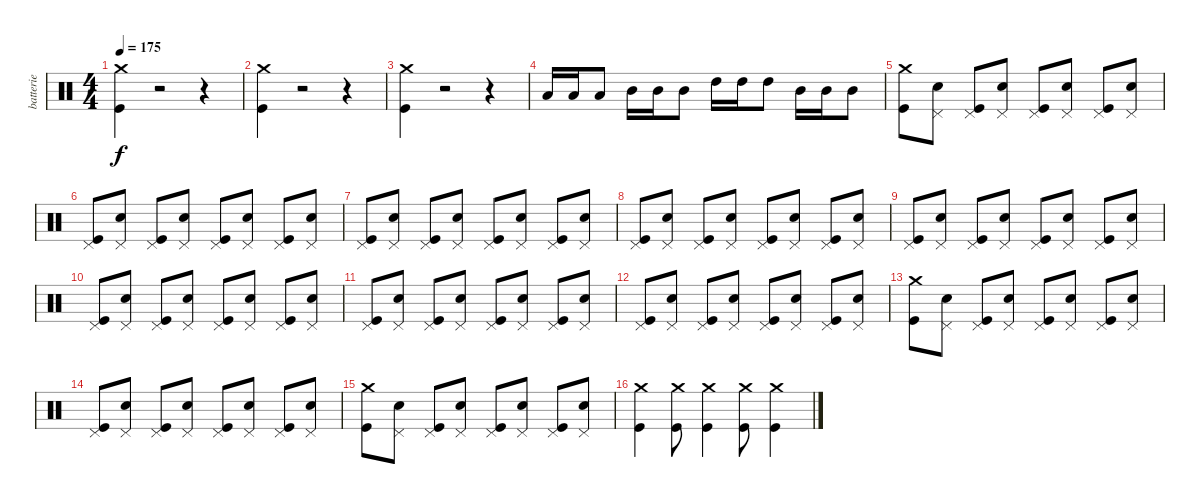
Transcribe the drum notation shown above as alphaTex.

\track ("batterie" "batterie") {instrument percussion}
\staff {score}
\articulation defaults
\ts (4 4)
\tempo 175
\clef neutral
\ks c
("Crash medium (hit)" "Kick (hit)").4{dy f} r.2 r.4 |
("Crash medium (hit)" "Kick (hit)").4 r.2 r.4 |
("Crash medium (hit)" "Kick (hit)").4 r.2 r.4 |
"Low Tom (hit)".16 "Low Tom (hit)".16 "Low Tom (hit)".8 "Mid Tom (hit)".16 "Mid Tom (hit)".16 "Mid Tom (hit)".8 "High Tom (hit)".16 "High Tom (hit)".16 "High Tom (hit)".8 "Mid Tom (hit)".16 "Mid Tom (hit)".16 "Mid Tom (hit)".8 |
("Crash medium (hit)" "Kick (hit)").8 ("Pedal Hi-Hat (hit)" "Snare (hit) 2").8 ("Pedal Hi-Hat (hit)" "Kick (hit)").8 ("Pedal Hi-Hat (hit)" "Snare (hit) 2").8 ("Pedal Hi-Hat (hit)" "Kick (hit)").8 ("Pedal Hi-Hat (hit)" "Snare (hit) 2").8 ("Pedal Hi-Hat (hit)" "Kick (hit)").8 ("Pedal Hi-Hat (hit)" "Snare (hit) 2").8 |
("Pedal Hi-Hat (hit)" "Kick (hit)").8 ("Pedal Hi-Hat (hit)" "Snare (hit) 2").8 ("Pedal Hi-Hat (hit)" "Kick (hit)").8 ("Pedal Hi-Hat (hit)" "Snare (hit) 2").8 ("Pedal Hi-Hat (hit)" "Kick (hit)").8 ("Pedal Hi-Hat (hit)" "Snare (hit) 2").8 ("Pedal Hi-Hat (hit)" "Kick (hit)").8 ("Pedal Hi-Hat (hit)" "Snare (hit) 2").8 |
("Pedal Hi-Hat (hit)" "Kick (hit)").8 ("Pedal Hi-Hat (hit)" "Snare (hit) 2").8 ("Pedal Hi-Hat (hit)" "Kick (hit)").8 ("Pedal Hi-Hat (hit)" "Snare (hit) 2").8 ("Pedal Hi-Hat (hit)" "Kick (hit)").8 ("Pedal Hi-Hat (hit)" "Snare (hit) 2").8 ("Pedal Hi-Hat (hit)" "Kick (hit)").8 ("Pedal Hi-Hat (hit)" "Snare (hit) 2").8 |
("Pedal Hi-Hat (hit)" "Kick (hit)").8 ("Pedal Hi-Hat (hit)" "Snare (hit) 2").8 ("Pedal Hi-Hat (hit)" "Kick (hit)").8 ("Pedal Hi-Hat (hit)" "Snare (hit) 2").8 ("Pedal Hi-Hat (hit)" "Kick (hit)").8 ("Pedal Hi-Hat (hit)" "Snare (hit) 2").8 ("Pedal Hi-Hat (hit)" "Kick (hit)").8 ("Pedal Hi-Hat (hit)" "Snare (hit) 2").8 |
("Pedal Hi-Hat (hit)" "Kick (hit)").8 ("Pedal Hi-Hat (hit)" "Snare (hit) 2").8 ("Pedal Hi-Hat (hit)" "Kick (hit)").8 ("Pedal Hi-Hat (hit)" "Snare (hit) 2").8 ("Pedal Hi-Hat (hit)" "Kick (hit)").8 ("Pedal Hi-Hat (hit)" "Snare (hit) 2").8 ("Pedal Hi-Hat (hit)" "Kick (hit)").8 ("Pedal Hi-Hat (hit)" "Snare (hit) 2").8 |
("Pedal Hi-Hat (hit)" "Kick (hit)").8 ("Pedal Hi-Hat (hit)" "Snare (hit) 2").8 ("Pedal Hi-Hat (hit)" "Kick (hit)").8 ("Pedal Hi-Hat (hit)" "Snare (hit) 2").8 ("Pedal Hi-Hat (hit)" "Kick (hit)").8 ("Pedal Hi-Hat (hit)" "Snare (hit) 2").8 ("Pedal Hi-Hat (hit)" "Kick (hit)").8 ("Pedal Hi-Hat (hit)" "Snare (hit) 2").8 |
("Pedal Hi-Hat (hit)" "Kick (hit)").8 ("Pedal Hi-Hat (hit)" "Snare (hit) 2").8 ("Pedal Hi-Hat (hit)" "Kick (hit)").8 ("Pedal Hi-Hat (hit)" "Snare (hit) 2").8 ("Pedal Hi-Hat (hit)" "Kick (hit)").8 ("Pedal Hi-Hat (hit)" "Snare (hit) 2").8 ("Pedal Hi-Hat (hit)" "Kick (hit)").8 ("Pedal Hi-Hat (hit)" "Snare (hit) 2").8 |
("Pedal Hi-Hat (hit)" "Kick (hit)").8 ("Pedal Hi-Hat (hit)" "Snare (hit) 2").8 ("Pedal Hi-Hat (hit)" "Kick (hit)").8 ("Pedal Hi-Hat (hit)" "Snare (hit) 2").8 ("Pedal Hi-Hat (hit)" "Kick (hit)").8 ("Pedal Hi-Hat (hit)" "Snare (hit) 2").8 ("Pedal Hi-Hat (hit)" "Kick (hit)").8 ("Pedal Hi-Hat (hit)" "Snare (hit) 2").8 |
("Crash medium (hit)" "Kick (hit)").8 ("Pedal Hi-Hat (hit)" "Snare (hit) 2").8 ("Pedal Hi-Hat (hit)" "Kick (hit)").8 ("Pedal Hi-Hat (hit)" "Snare (hit) 2").8 ("Pedal Hi-Hat (hit)" "Kick (hit)").8 ("Pedal Hi-Hat (hit)" "Snare (hit) 2").8 ("Pedal Hi-Hat (hit)" "Kick (hit)").8 ("Pedal Hi-Hat (hit)" "Snare (hit) 2").8 |
("Pedal Hi-Hat (hit)" "Kick (hit)").8 ("Pedal Hi-Hat (hit)" "Snare (hit) 2").8 ("Pedal Hi-Hat (hit)" "Kick (hit)").8 ("Pedal Hi-Hat (hit)" "Snare (hit) 2").8 ("Pedal Hi-Hat (hit)" "Kick (hit)").8 ("Pedal Hi-Hat (hit)" "Snare (hit) 2").8 ("Pedal Hi-Hat (hit)" "Kick (hit)").8 ("Pedal Hi-Hat (hit)" "Snare (hit) 2").8 |
("Crash medium (hit)" "Kick (hit)").8 ("Pedal Hi-Hat (hit)" "Snare (hit) 2").8 ("Pedal Hi-Hat (hit)" "Kick (hit)").8 ("Pedal Hi-Hat (hit)" "Snare (hit) 2").8 ("Pedal Hi-Hat (hit)" "Kick (hit)").8 ("Pedal Hi-Hat (hit)" "Snare (hit) 2").8 ("Pedal Hi-Hat (hit)" "Kick (hit)").8 ("Pedal Hi-Hat (hit)" "Snare (hit) 2").8 |
("Crash medium (hit)" "Kick (hit)").4 ("Crash medium (hit)" "Kick (hit)").8 ("Crash medium (hit)" "Kick (hit)").4 ("Crash medium (hit)" "Kick (hit)").8 ("Crash medium (hit)" "Kick (hit)").4
